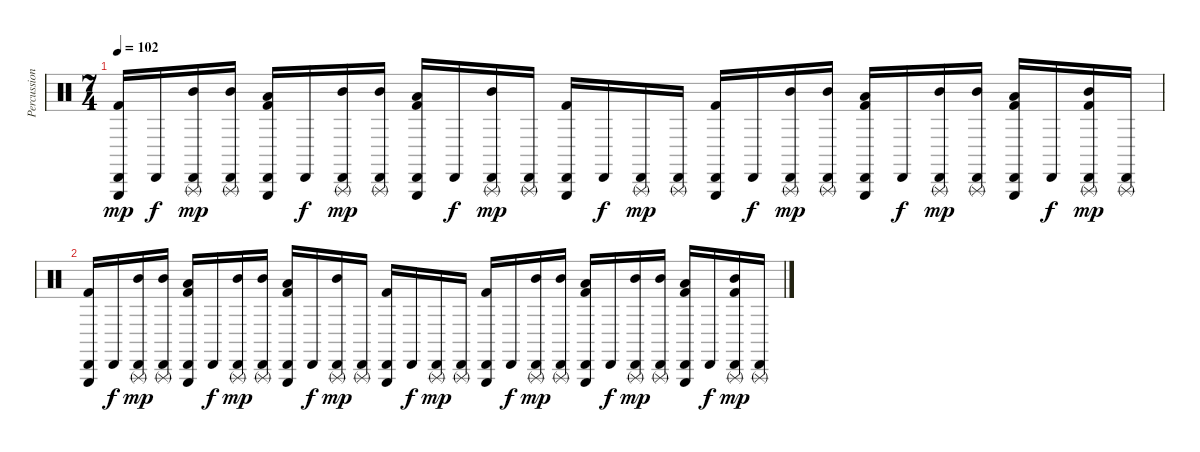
\track ("Percussion" "Percussion") {instrument percussion}
\staff {score}
\articulation defaults
\ts (7 4)
\tempo 102
\clef neutral
\ks c
("Triangle (hit)" "Cabasa (hit)" "Kick (hit) 2").16{dy mp volume 3} "Cabasa (hit)".16{dy f} ("Triangle (rnute)" "Cabasa (hit)" "Mid Tom (hit)").16{dy mp} ("Triangle (rnute)" "Cabasa (hit)" "Mid Tom (hit)").16 ("Triangle (hit)" "Cabasa (hit)" "Low Tom (hit)" "Kick (hit) 2").16 "Cabasa (hit)".16{dy f} ("Triangle (rnute)" "Cabasa (hit)" "Mid Tom (hit)").16{dy mp} ("Triangle (rnute)" "Cabasa (hit)" "Mid Tom (hit)").16 ("Triangle (hit)" "Cabasa (hit)" "Low Tom (hit)" "Kick (hit) 2").16 "Cabasa (hit)".16{dy f} ("Triangle (rnute)" "Cabasa (hit)" "Mid Tom (hit)").16{dy mp} ("Triangle (rnute)" "Cabasa (hit)").16 ("Triangle (hit)" "Cabasa (hit)" "Kick (hit) 2").16 "Cabasa (hit)".16{dy f} ("Triangle (rnute)" "Cabasa (hit)").16{dy mp} ("Triangle (rnute)" "Cabasa (hit)").16 ("Triangle (hit)" "Cabasa (hit)" "Kick (hit) 2").16 "Cabasa (hit)".16{dy f} ("Triangle (rnute)" "Cabasa (hit)" "Mid Tom (hit)").16{dy mp} ("Triangle (rnute)" "Cabasa (hit)" "Mid Tom (hit)").16 ("Triangle (hit)" "Cabasa (hit)" "Low Tom (hit)" "Kick (hit) 2").16 "Cabasa (hit)".16{dy f} ("Triangle (rnute)" "Cabasa (hit)" "Mid Tom (hit)").16{dy mp} ("Triangle (rnute)" "Cabasa (hit)" "Mid Tom (hit)").16 ("Triangle (hit)" "Cabasa (hit)" "Low Tom (hit)" "Kick (hit) 2").16 "Cabasa (hit)".16{dy f} ("Triangle (rnute)" "Cabasa (hit)" "Mid Tom (hit)" "Kick (hit) 2").16{dy mp} ("Triangle (rnute)" "Cabasa (hit)").16 |
("Triangle (hit)" "Cabasa (hit)" "Kick (hit) 2").16{volume 0} "Cabasa (hit)".16{dy f} ("Triangle (rnute)" "Cabasa (hit)" "Mid Tom (hit)").16{dy mp} ("Triangle (rnute)" "Cabasa (hit)" "Mid Tom (hit)").16 ("Triangle (hit)" "Cabasa (hit)" "Low Tom (hit)" "Kick (hit) 2").16 "Cabasa (hit)".16{dy f} ("Triangle (rnute)" "Cabasa (hit)" "Mid Tom (hit)").16{dy mp} ("Triangle (rnute)" "Cabasa (hit)" "Mid Tom (hit)").16 ("Triangle (hit)" "Cabasa (hit)" "Low Tom (hit)" "Kick (hit) 2").16 "Cabasa (hit)".16{dy f} ("Triangle (rnute)" "Cabasa (hit)" "Mid Tom (hit)").16{dy mp} ("Triangle (rnute)" "Cabasa (hit)").16 ("Triangle (hit)" "Cabasa (hit)" "Kick (hit) 2").16 "Cabasa (hit)".16{dy f} ("Triangle (rnute)" "Cabasa (hit)").16{dy mp} ("Triangle (rnute)" "Cabasa (hit)").16 ("Triangle (hit)" "Cabasa (hit)" "Kick (hit) 2").16 "Cabasa (hit)".16{dy f} ("Triangle (rnute)" "Cabasa (hit)" "Mid Tom (hit)").16{dy mp} ("Triangle (rnute)" "Cabasa (hit)" "Mid Tom (hit)").16 ("Triangle (hit)" "Cabasa (hit)" "Low Tom (hit)" "Kick (hit) 2").16 "Cabasa (hit)".16{dy f} ("Triangle (rnute)" "Cabasa (hit)" "Mid Tom (hit)").16{dy mp} ("Triangle (rnute)" "Cabasa (hit)" "Mid Tom (hit)").16 ("Triangle (hit)" "Cabasa (hit)" "Low Tom (hit)" "Kick (hit) 2").16 "Cabasa (hit)".16{dy f} ("Triangle (rnute)" "Cabasa (hit)" "Mid Tom (hit)" "Kick (hit) 2").16{dy mp} ("Triangle (rnute)" "Cabasa (hit)").16
